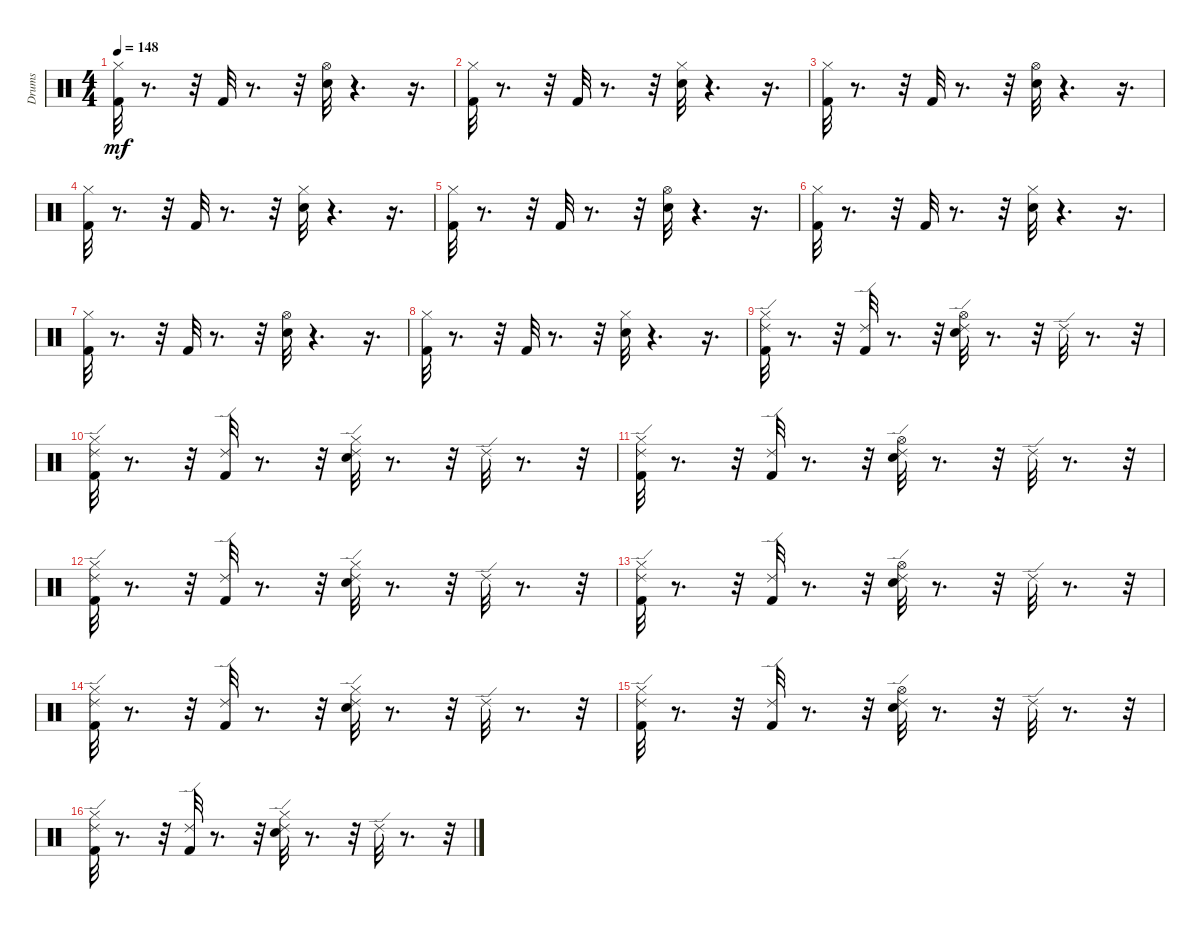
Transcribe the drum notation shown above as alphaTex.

\track ("Drums" "Drums") {instrument percussion}
\staff {score}
\articulation defaults
\ts (4 4)
\tempo 148
\clef neutral
\ks c
("Hi-Hat (closed)" "Kick (hit) 2").32{dy mf} r.8{d} r.32 "Kick (hit) 2".32 r.8{d} r.32 ("Hi-Hat (open)" "Electric Snare (hit)").32 r.4{d} r.16{d} |
("Kick (hit) 2" "Hi-Hat (closed)").32 r.8{d} r.32 "Kick (hit) 2".32 r.8{d} r.32 ("Electric Snare (hit)" "Hi-Hat (closed)").32 r.4{d} r.16{d} |
("Hi-Hat (closed)" "Kick (hit) 2").32 r.8{d} r.32 "Kick (hit) 2".32 r.8{d} r.32 ("Hi-Hat (open)" "Electric Snare (hit)").32 r.4{d} r.16{d} |
("Kick (hit) 2" "Hi-Hat (closed)").32 r.8{d} r.32 "Kick (hit) 2".32 r.8{d} r.32 ("Electric Snare (hit)" "Hi-Hat (closed)").32 r.4{d} r.16{d} |
("Hi-Hat (closed)" "Kick (hit) 2").32 r.8{d} r.32 "Kick (hit) 2".32 r.8{d} r.32 ("Hi-Hat (open)" "Electric Snare (hit)").32 r.4{d} r.16{d} |
("Kick (hit) 2" "Hi-Hat (closed)").32 r.8{d} r.32 "Kick (hit) 2".32 r.8{d} r.32 ("Electric Snare (hit)" "Hi-Hat (closed)").32 r.4{d} r.16{d} |
("Hi-Hat (closed)" "Kick (hit) 2").32 r.8{d} r.32 "Kick (hit) 2".32 r.8{d} r.32 ("Hi-Hat (open)" "Electric Snare (hit)").32 r.4{d} r.16{d} |
("Kick (hit) 2" "Hi-Hat (closed)").32 r.8{d} r.32 "Kick (hit) 2".32 r.8{d} r.32 ("Electric Snare (hit)" "Hi-Hat (closed)").32 r.4{d} r.16{d} |
("Ride (edge) 2" "Hi-Hat (closed)" "Kick (hit) 2").32 r.8{d} r.32 ("Ride (edge) 2" "Kick (hit) 2").32 r.8{d} r.32 ("Ride (edge) 2" "Hi-Hat (open)" "Electric Snare (hit)").32 r.8{d} r.32 "Ride (edge) 2".32 r.8{d} r.32 |
("Ride (edge) 2" "Kick (hit) 2" "Hi-Hat (closed)").32 r.8{d} r.32 ("Ride (edge) 2" "Kick (hit) 2").32 r.8{d} r.32 ("Ride (edge) 2" "Electric Snare (hit)" "Hi-Hat (closed)").32 r.8{d} r.32 "Ride (edge) 2".32 r.8{d} r.32 |
("Ride (edge) 2" "Hi-Hat (closed)" "Kick (hit) 2").32 r.8{d} r.32 ("Ride (edge) 2" "Kick (hit) 2").32 r.8{d} r.32 ("Ride (edge) 2" "Hi-Hat (open)" "Electric Snare (hit)").32 r.8{d} r.32 "Ride (edge) 2".32 r.8{d} r.32 |
("Ride (edge) 2" "Kick (hit) 2" "Hi-Hat (closed)").32 r.8{d} r.32 ("Ride (edge) 2" "Kick (hit) 2").32 r.8{d} r.32 ("Ride (edge) 2" "Electric Snare (hit)" "Hi-Hat (closed)").32 r.8{d} r.32 "Ride (edge) 2".32 r.8{d} r.32 |
("Ride (edge) 2" "Hi-Hat (closed)" "Kick (hit) 2").32 r.8{d} r.32 ("Ride (edge) 2" "Kick (hit) 2").32 r.8{d} r.32 ("Ride (edge) 2" "Hi-Hat (open)" "Electric Snare (hit)").32 r.8{d} r.32 "Ride (edge) 2".32 r.8{d} r.32 |
("Ride (edge) 2" "Kick (hit) 2" "Hi-Hat (closed)").32 r.8{d} r.32 ("Ride (edge) 2" "Kick (hit) 2").32 r.8{d} r.32 ("Ride (edge) 2" "Electric Snare (hit)" "Hi-Hat (closed)").32 r.8{d} r.32 "Ride (edge) 2".32 r.8{d} r.32 |
("Ride (edge) 2" "Hi-Hat (closed)" "Kick (hit) 2").32 r.8{d} r.32 ("Ride (edge) 2" "Kick (hit) 2").32 r.8{d} r.32 ("Ride (edge) 2" "Hi-Hat (open)" "Electric Snare (hit)").32 r.8{d} r.32 "Ride (edge) 2".32 r.8{d} r.32 |
("Ride (edge) 2" "Kick (hit) 2" "Hi-Hat (closed)").32 r.8{d} r.32 ("Ride (edge) 2" "Kick (hit) 2").32 r.8{d} r.32 ("Ride (edge) 2" "Electric Snare (hit)" "Hi-Hat (closed)").32 r.8{d} r.32 "Ride (edge) 2".32 r.8{d} r.32
